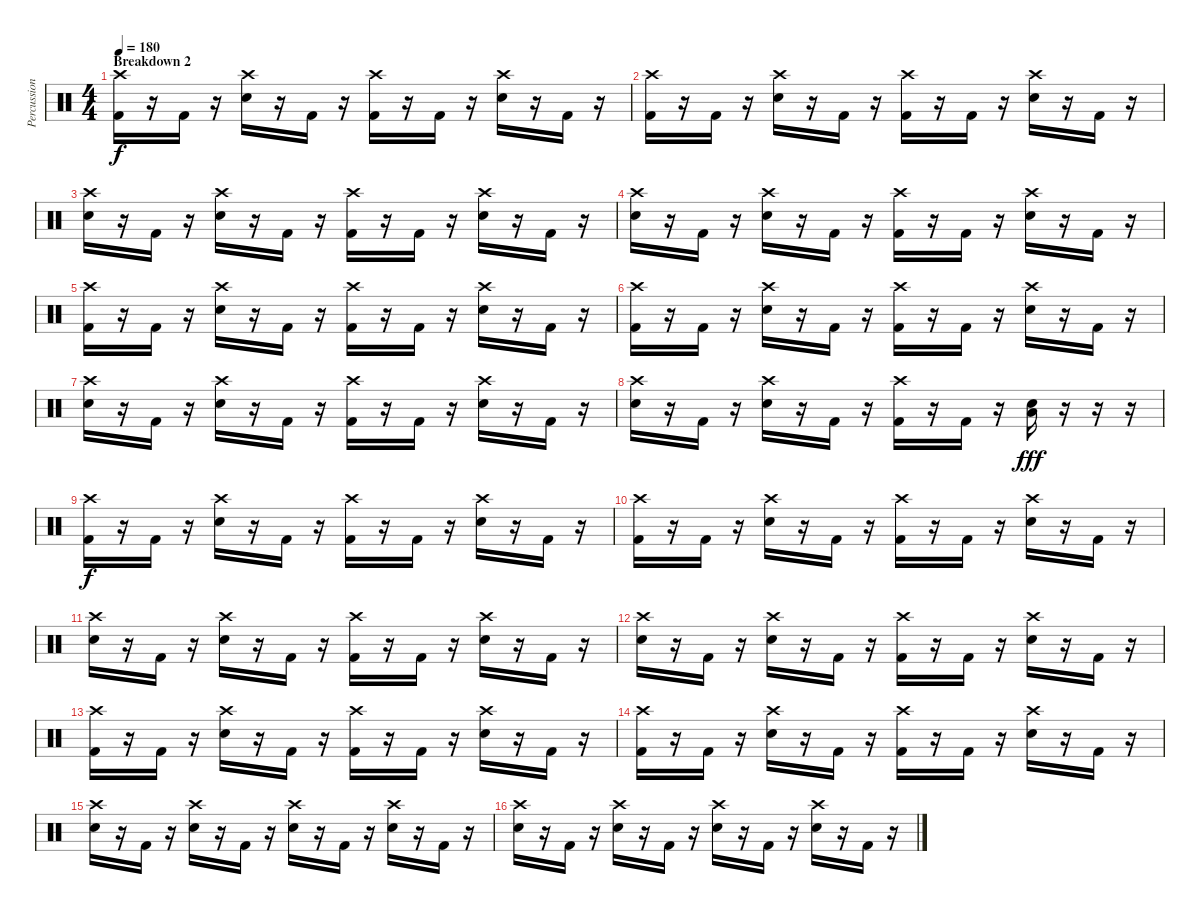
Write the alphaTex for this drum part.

\track ("Percussion" "Percussion") {instrument percussion}
\staff {score}
\articulation defaults
\ts (4 4)
\section ("" "Breakdown 2")
\tempo 180
\clef neutral
\ks c
("Crash high (hit)" "Kick (hit) 2").16{dy f} r.16 "Kick (hit) 2".16 r.16 ("Crash high (hit)" "Electric Snare (hit)").16 r.16 "Kick (hit) 2".16 r.16 ("Crash high (hit)" "Kick (hit) 2").16 r.16 "Kick (hit) 2".16 r.16 ("Crash high (hit)" "Electric Snare (hit)").16 r.16 "Kick (hit) 2".16 r.16 |
("Crash high (hit)" "Kick (hit) 2").16 r.16 "Kick (hit) 2".16 r.16 ("Crash high (hit)" "Electric Snare (hit)").16 r.16 "Kick (hit) 2".16 r.16 ("Crash high (hit)" "Kick (hit) 2").16 r.16 "Kick (hit) 2".16 r.16 ("Crash high (hit)" "Electric Snare (hit)").16 r.16 "Kick (hit) 2".16 r.16 |
("Crash high (hit)" "Electric Snare (hit)").16 r.16 "Kick (hit) 2".16 r.16 ("Crash high (hit)" "Electric Snare (hit)").16 r.16 "Kick (hit) 2".16 r.16 ("Crash high (hit)" "Kick (hit) 2").16 r.16 "Kick (hit) 2".16 r.16 ("Crash high (hit)" "Electric Snare (hit)").16 r.16 "Kick (hit) 2".16 r.16 |
("Crash high (hit)" "Electric Snare (hit)").16 r.16 "Kick (hit) 2".16 r.16 ("Crash high (hit)" "Electric Snare (hit)").16 r.16 "Kick (hit) 2".16 r.16 ("Crash high (hit)" "Kick (hit) 2").16 r.16 "Kick (hit) 2".16 r.16 ("Crash high (hit)" "Electric Snare (hit)").16 r.16 "Kick (hit) 2".16 r.16 |
("Crash high (hit)" "Kick (hit) 2").16 r.16 "Kick (hit) 2".16 r.16 ("Crash high (hit)" "Electric Snare (hit)").16 r.16 "Kick (hit) 2".16 r.16 ("Crash high (hit)" "Kick (hit) 2").16 r.16 "Kick (hit) 2".16 r.16 ("Crash high (hit)" "Electric Snare (hit)").16 r.16 "Kick (hit) 2".16 r.16 |
("Crash high (hit)" "Kick (hit) 2").16 r.16 "Kick (hit) 2".16 r.16 ("Crash high (hit)" "Electric Snare (hit)").16 r.16 "Kick (hit) 2".16 r.16 ("Crash high (hit)" "Kick (hit) 2").16 r.16 "Kick (hit) 2".16 r.16 ("Crash high (hit)" "Electric Snare (hit)").16 r.16 "Kick (hit) 2".16 r.16 |
("Crash high (hit)" "Electric Snare (hit)").16 r.16 "Kick (hit) 2".16 r.16 ("Crash high (hit)" "Electric Snare (hit)").16 r.16 "Kick (hit) 2".16 r.16 ("Crash high (hit)" "Kick (hit) 2").16 r.16 "Kick (hit) 2".16 r.16 ("Crash high (hit)" "Electric Snare (hit)").16 r.16 "Kick (hit) 2".16 r.16 |
("Crash high (hit)" "Electric Snare (hit)").16 r.16 "Kick (hit) 2".16 r.16 ("Crash high (hit)" "Electric Snare (hit)").16 r.16 "Kick (hit) 2".16 r.16 ("Crash high (hit)" "Kick (hit) 2").16 r.16 "Kick (hit) 2".16 r.16 ("Low Floor Tom (hit)" "Electric Snare (hit)").16{dy fff} r.16 r.16 r.16 |
("Crash high (hit)" "Kick (hit) 2").16{dy f} r.16 "Kick (hit) 2".16 r.16 ("Crash high (hit)" "Electric Snare (hit)").16 r.16 "Kick (hit) 2".16 r.16 ("Crash high (hit)" "Kick (hit) 2").16 r.16 "Kick (hit) 2".16 r.16 ("Crash high (hit)" "Electric Snare (hit)").16 r.16 "Kick (hit) 2".16 r.16 |
("Crash high (hit)" "Kick (hit) 2").16 r.16 "Kick (hit) 2".16 r.16 ("Crash high (hit)" "Electric Snare (hit)").16 r.16 "Kick (hit) 2".16 r.16 ("Crash high (hit)" "Kick (hit) 2").16 r.16 "Kick (hit) 2".16 r.16 ("Crash high (hit)" "Electric Snare (hit)").16 r.16 "Kick (hit) 2".16 r.16 |
("Crash high (hit)" "Electric Snare (hit)").16 r.16 "Kick (hit) 2".16 r.16 ("Crash high (hit)" "Electric Snare (hit)").16 r.16 "Kick (hit) 2".16 r.16 ("Crash high (hit)" "Kick (hit) 2").16 r.16 "Kick (hit) 2".16 r.16 ("Crash high (hit)" "Electric Snare (hit)").16 r.16 "Kick (hit) 2".16 r.16 |
("Crash high (hit)" "Electric Snare (hit)").16 r.16 "Kick (hit) 2".16 r.16 ("Crash high (hit)" "Electric Snare (hit)").16 r.16 "Kick (hit) 2".16 r.16 ("Crash high (hit)" "Kick (hit) 2").16 r.16 "Kick (hit) 2".16 r.16 ("Crash high (hit)" "Electric Snare (hit)").16 r.16 "Kick (hit) 2".16 r.16 |
("Crash high (hit)" "Kick (hit) 2").16 r.16 "Kick (hit) 2".16 r.16 ("Crash high (hit)" "Electric Snare (hit)").16 r.16 "Kick (hit) 2".16 r.16 ("Crash high (hit)" "Kick (hit) 2").16 r.16 "Kick (hit) 2".16 r.16 ("Crash high (hit)" "Electric Snare (hit)").16 r.16 "Kick (hit) 2".16 r.16 |
("Crash high (hit)" "Kick (hit) 2").16 r.16 "Kick (hit) 2".16 r.16 ("Crash high (hit)" "Electric Snare (hit)").16 r.16 "Kick (hit) 2".16 r.16 ("Crash high (hit)" "Kick (hit) 2").16 r.16 "Kick (hit) 2".16 r.16 ("Crash high (hit)" "Electric Snare (hit)").16 r.16 "Kick (hit) 2".16 r.16 |
("Crash high (hit)" "Electric Snare (hit)").16 r.16 "Kick (hit) 2".16 r.16 ("Crash high (hit)" "Electric Snare (hit)").16 r.16 "Kick (hit) 2".16 r.16 ("Crash high (hit)" "Electric Snare (hit)").16 r.16 "Kick (hit) 2".16 r.16 ("Crash high (hit)" "Electric Snare (hit)").16 r.16 "Kick (hit) 2".16 r.16 |
("Crash high (hit)" "Electric Snare (hit)").16 r.16 "Kick (hit) 2".16 r.16 ("Crash high (hit)" "Electric Snare (hit)").16 r.16 "Kick (hit) 2".16 r.16 ("Crash high (hit)" "Electric Snare (hit)").16 r.16 "Kick (hit) 2".16 r.16 ("Crash high (hit)" "Electric Snare (hit)").16 r.16 "Kick (hit) 2".16 r.16
